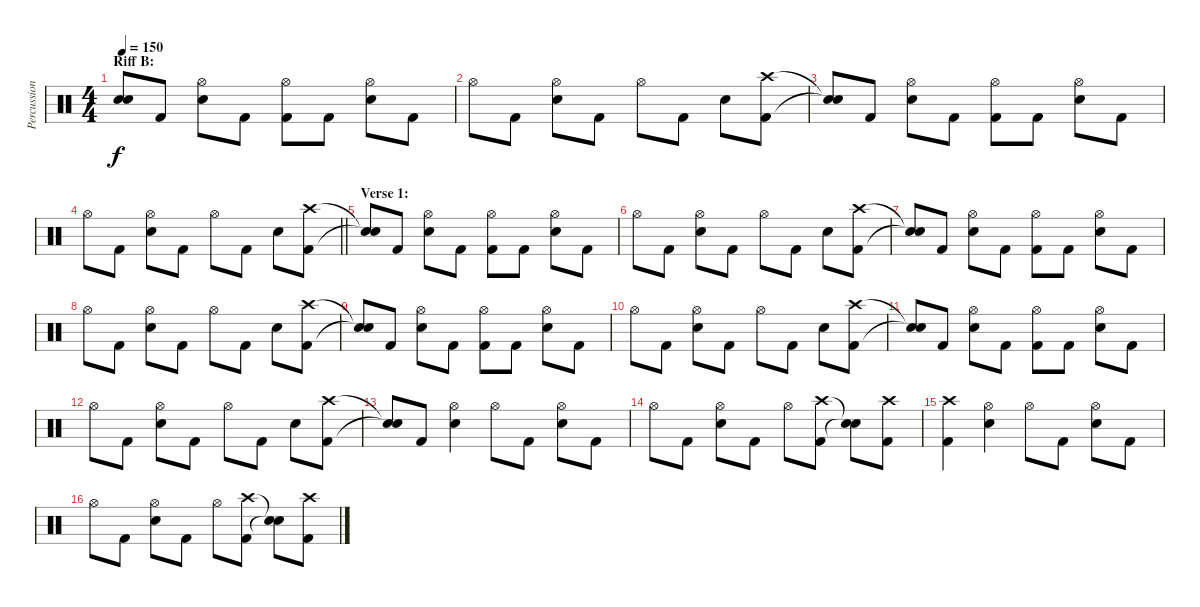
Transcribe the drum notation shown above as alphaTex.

\track ("Percussion" "Percussion") {instrument percussion}
\staff {score}
\articulation defaults
\ts (4 4)
\section ("" "Riff B:")
\tempo 150
\clef neutral
\ks c
("Snare (hit)"{t} "Snare (hit)"{t}).8{dy f} "Kick (hit) 2".8 ("Hi-Hat (open)" "Snare (hit) 2").8 "Kick (hit) 2".8 ("Hi-Hat (open)" "Kick (hit) 2").8 "Kick (hit) 2".8 ("Hi-Hat (open)" "Snare (hit) 2").8 "Kick (hit) 2".8 |
"Hi-Hat (open)".8 "Kick (hit) 2".8 ("Hi-Hat (open)" "Snare (hit) 2").8 "Kick (hit) 2".8 "Hi-Hat (open)".8 "Kick (hit) 2".8 "Snare (hit) 2".8 ("Crash high (hit)" "Kick (hit) 2").8 |
("Snare (hit)"{t} "Snare (hit)"{t}).8 "Kick (hit) 2".8 ("Hi-Hat (open)" "Snare (hit) 2").8 "Kick (hit) 2".8 ("Hi-Hat (open)" "Kick (hit) 2").8 "Kick (hit) 2".8 ("Hi-Hat (open)" "Snare (hit) 2").8 "Kick (hit) 2".8 |
\barLineRight lightlight "Hi-Hat (open)".8 "Kick (hit) 2".8
("Hi-Hat (open)" "Snare (hit) 2").8 "Kick (hit) 2".8 "Hi-Hat (open)".8 "Kick (hit) 2".8 "Snare (hit) 2".8 ("Crash high (hit)" "Kick (hit) 2").8 |
\section ("" "Verse 1:")
("Snare (hit)"{t} "Snare (hit)"{t}).8 "Kick (hit) 2".8 ("Hi-Hat (open)" "Snare (hit) 2").8 "Kick (hit) 2".8 ("Hi-Hat (open)" "Kick (hit) 2").8 "Kick (hit) 2".8 ("Hi-Hat (open)" "Snare (hit) 2").8 "Kick (hit) 2".8 |
"Hi-Hat (open)".8 "Kick (hit) 2".8 ("Hi-Hat (open)" "Snare (hit) 2").8 "Kick (hit) 2".8 "Hi-Hat (open)".8 "Kick (hit) 2".8 "Snare (hit) 2".8 ("Crash high (hit)" "Kick (hit) 2").8 |
("Snare (hit)"{t} "Snare (hit)"{t}).8 "Kick (hit) 2".8 ("Hi-Hat (open)" "Snare (hit) 2").8 "Kick (hit) 2".8 ("Hi-Hat (open)" "Kick (hit) 2").8 "Kick (hit) 2".8 ("Hi-Hat (open)" "Snare (hit) 2").8 "Kick (hit) 2".8 |
"Hi-Hat (open)".8 "Kick (hit) 2".8 ("Hi-Hat (open)" "Snare (hit) 2").8 "Kick (hit) 2".8 "Hi-Hat (open)".8 "Kick (hit) 2".8 "Snare (hit) 2".8 ("Crash high (hit)" "Kick (hit) 2").8 |
("Snare (hit)"{t} "Snare (hit)"{t}).8 "Kick (hit) 2".8 ("Hi-Hat (open)" "Snare (hit) 2").8 "Kick (hit) 2".8 ("Hi-Hat (open)" "Kick (hit) 2").8 "Kick (hit) 2".8 ("Hi-Hat (open)" "Snare (hit) 2").8 "Kick (hit) 2".8 |
"Hi-Hat (open)".8 "Kick (hit) 2".8 ("Hi-Hat (open)" "Snare (hit) 2").8 "Kick (hit) 2".8 "Hi-Hat (open)".8 "Kick (hit) 2".8 "Snare (hit) 2".8 ("Crash high (hit)" "Kick (hit) 2").8 |
("Snare (hit)"{t} "Snare (hit)"{t}).8 "Kick (hit) 2".8 ("Hi-Hat (open)" "Snare (hit) 2").8 "Kick (hit) 2".8 ("Hi-Hat (open)" "Kick (hit) 2").8 "Kick (hit) 2".8 ("Hi-Hat (open)" "Snare (hit) 2").8 "Kick (hit) 2".8 |
"Hi-Hat (open)".8 "Kick (hit) 2".8 ("Hi-Hat (open)" "Snare (hit) 2").8 "Kick (hit) 2".8 "Hi-Hat (open)".8 "Kick (hit) 2".8 "Snare (hit) 2".8 ("Crash high (hit)" "Kick (hit) 2").8 |
("Snare (hit)"{t} "Snare (hit)"{t}).8 "Kick (hit) 2".8 ("Hi-Hat (open)" "Snare (hit) 2").4 "Hi-Hat (open)".8 "Kick (hit) 2".8 ("Hi-Hat (open)" "Snare (hit) 2").8 "Kick (hit) 2".8 |
"Hi-Hat (open)".8 "Kick (hit) 2".8 ("Hi-Hat (open)" "Snare (hit) 2").8 "Kick (hit) 2".8 "Hi-Hat (open)".8 ("Crash high (hit)" "Kick (hit) 2").8 ("Snare (hit)"{t} "Snare (hit)"{t}).8 ("Crash high (hit)" "Kick (hit) 2").8 |
("Crash high (hit)" "Kick (hit) 2").4 ("Hi-Hat (open)" "Snare (hit) 2").4 "Hi-Hat (open)".8 "Kick (hit) 2".8 ("Hi-Hat (open)" "Snare (hit) 2").8 "Kick (hit) 2".8 |
"Hi-Hat (open)".8 "Kick (hit) 2".8 ("Hi-Hat (open)" "Snare (hit) 2").8 "Kick (hit) 2".8 "Hi-Hat (open)".8 ("Crash high (hit)" "Kick (hit) 2").8 ("Snare (hit)"{t} "Snare (hit)"{t}).8 ("Crash high (hit)" "Kick (hit) 2").8
